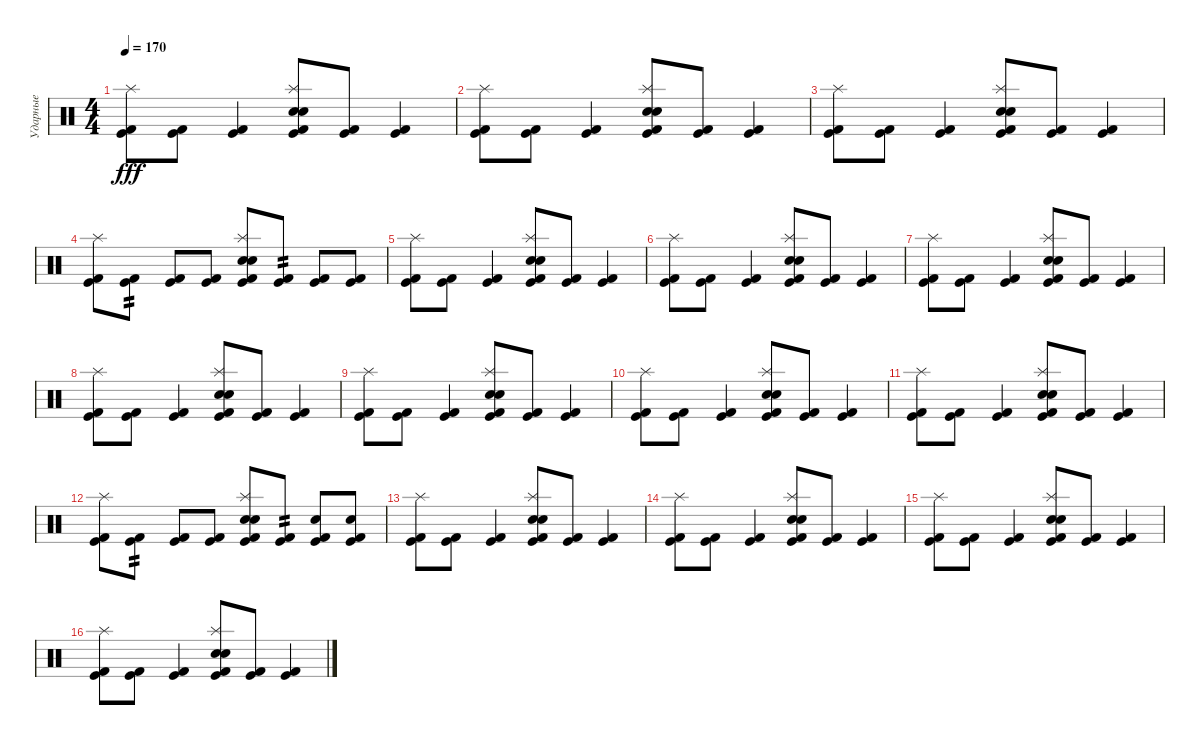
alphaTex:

\track ("Ударные" "Ударные") {instrument percussion}
\staff {score}
\articulation defaults
\ts (4 4)
\tempo 170
\clef neutral
\ks c
("Kick (hit) 2" "Kick (hit)" "Splash (hit)").8{dy fff} ("Kick (hit) 2" "Kick (hit)").8 ("Kick (hit) 2" "Kick (hit)").4 ("Kick (hit) 2" "Kick (hit)" "Snare (hit) 2" "Electric Snare (hit)" "Splash (hit)").8 ("Kick (hit) 2" "Kick (hit)").8 ("Kick (hit) 2" "Kick (hit)").4 |
("Kick (hit) 2" "Kick (hit)" "Splash (hit)").8 ("Kick (hit) 2" "Kick (hit)").8 ("Kick (hit) 2" "Kick (hit)").4 ("Kick (hit) 2" "Kick (hit)" "Snare (hit) 2" "Electric Snare (hit)" "Splash (hit)").8 ("Kick (hit) 2" "Kick (hit)").8 ("Kick (hit) 2" "Kick (hit)").4 |
("Kick (hit) 2" "Kick (hit)" "Splash (hit)").8 ("Kick (hit) 2" "Kick (hit)").8 ("Kick (hit) 2" "Kick (hit)").4 ("Kick (hit) 2" "Kick (hit)" "Snare (hit) 2" "Electric Snare (hit)" "Splash (hit)").8 ("Kick (hit) 2" "Kick (hit)").8 ("Kick (hit) 2" "Kick (hit)").4 |
("Kick (hit) 2" "Kick (hit)" "Splash (hit)").8 ("Kick (hit) 2" "Kick (hit)").8{tp 2} ("Kick (hit) 2" "Kick (hit)").8 ("Kick (hit) 2" "Kick (hit)").8 ("Kick (hit) 2" "Kick (hit)" "Snare (hit) 2" "Electric Snare (hit)" "Splash (hit)").8 ("Kick (hit) 2" "Kick (hit)").8{tp 2} ("Kick (hit) 2" "Kick (hit)").8 ("Kick (hit) 2" "Kick (hit)").8 |
("Kick (hit) 2" "Kick (hit)" "Splash (hit)").8 ("Kick (hit) 2" "Kick (hit)").8 ("Kick (hit) 2" "Kick (hit)").4 ("Kick (hit) 2" "Kick (hit)" "Snare (hit) 2" "Electric Snare (hit)" "Splash (hit)").8 ("Kick (hit) 2" "Kick (hit)").8 ("Kick (hit) 2" "Kick (hit)").4 |
("Kick (hit) 2" "Kick (hit)" "Splash (hit)").8 ("Kick (hit) 2" "Kick (hit)").8 ("Kick (hit) 2" "Kick (hit)").4 ("Kick (hit) 2" "Kick (hit)" "Snare (hit) 2" "Electric Snare (hit)" "Splash (hit)").8 ("Kick (hit) 2" "Kick (hit)").8 ("Kick (hit) 2" "Kick (hit)").4 |
("Kick (hit) 2" "Kick (hit)" "Splash (hit)").8 ("Kick (hit) 2" "Kick (hit)").8 ("Kick (hit) 2" "Kick (hit)").4 ("Kick (hit) 2" "Kick (hit)" "Snare (hit) 2" "Electric Snare (hit)" "Splash (hit)").8 ("Kick (hit) 2" "Kick (hit)").8 ("Kick (hit) 2" "Kick (hit)").4 |
("Kick (hit) 2" "Kick (hit)" "Splash (hit)").8 ("Kick (hit) 2" "Kick (hit)").8 ("Kick (hit) 2" "Kick (hit)").4 ("Kick (hit) 2" "Kick (hit)" "Snare (hit) 2" "Electric Snare (hit)" "Splash (hit)").8 ("Kick (hit) 2" "Kick (hit)").8 ("Kick (hit) 2" "Kick (hit)").4 |
("Kick (hit) 2" "Kick (hit)" "Splash (hit)").8 ("Kick (hit) 2" "Kick (hit)").8 ("Kick (hit) 2" "Kick (hit)").4 ("Kick (hit) 2" "Kick (hit)" "Snare (hit) 2" "Electric Snare (hit)" "Splash (hit)").8 ("Kick (hit) 2" "Kick (hit)").8 ("Kick (hit) 2" "Kick (hit)").4 |
("Kick (hit) 2" "Kick (hit)" "Splash (hit)").8 ("Kick (hit) 2" "Kick (hit)").8 ("Kick (hit) 2" "Kick (hit)").4 ("Kick (hit) 2" "Kick (hit)" "Snare (hit) 2" "Electric Snare (hit)" "Splash (hit)").8 ("Kick (hit) 2" "Kick (hit)").8 ("Kick (hit) 2" "Kick (hit)").4 |
("Kick (hit) 2" "Kick (hit)" "Splash (hit)").8 ("Kick (hit) 2" "Kick (hit)").8 ("Kick (hit) 2" "Kick (hit)").4 ("Kick (hit) 2" "Kick (hit)" "Snare (hit) 2" "Electric Snare (hit)" "Splash (hit)").8 ("Kick (hit) 2" "Kick (hit)").8 ("Kick (hit) 2" "Kick (hit)").4 |
("Kick (hit) 2" "Kick (hit)" "Splash (hit)").8 ("Kick (hit) 2" "Kick (hit)").8{tp 2} ("Kick (hit) 2" "Kick (hit)").8 ("Kick (hit) 2" "Kick (hit)").8 ("Kick (hit) 2" "Kick (hit)" "Snare (hit) 2" "Electric Snare (hit)" "Splash (hit)").8 ("Kick (hit) 2" "Kick (hit)").8{tp 2} ("Kick (hit) 2" "Kick (hit)" "Electric Snare (hit)").8 ("Kick (hit) 2" "Kick (hit)" "Electric Snare (hit)").8 |
("Kick (hit) 2" "Kick (hit)" "Splash (hit)").8 ("Kick (hit) 2" "Kick (hit)").8 ("Kick (hit) 2" "Kick (hit)").4 ("Kick (hit) 2" "Kick (hit)" "Snare (hit) 2" "Electric Snare (hit)" "Splash (hit)").8 ("Kick (hit) 2" "Kick (hit)").8 ("Kick (hit) 2" "Kick (hit)").4 |
("Kick (hit) 2" "Kick (hit)" "Splash (hit)").8 ("Kick (hit) 2" "Kick (hit)").8 ("Kick (hit) 2" "Kick (hit)").4 ("Kick (hit) 2" "Kick (hit)" "Snare (hit) 2" "Electric Snare (hit)" "Splash (hit)").8 ("Kick (hit) 2" "Kick (hit)").8 ("Kick (hit) 2" "Kick (hit)").4 |
("Kick (hit) 2" "Kick (hit)" "Splash (hit)").8 ("Kick (hit) 2" "Kick (hit)").8 ("Kick (hit) 2" "Kick (hit)").4 ("Kick (hit) 2" "Kick (hit)" "Snare (hit) 2" "Electric Snare (hit)" "Splash (hit)").8 ("Kick (hit) 2" "Kick (hit)").8 ("Kick (hit) 2" "Kick (hit)").4 |
("Kick (hit) 2" "Kick (hit)" "Splash (hit)").8 ("Kick (hit) 2" "Kick (hit)").8 ("Kick (hit) 2" "Kick (hit)").4 ("Kick (hit) 2" "Kick (hit)" "Snare (hit) 2" "Electric Snare (hit)" "Splash (hit)").8 ("Kick (hit) 2" "Kick (hit)").8 ("Kick (hit) 2" "Kick (hit)").4
